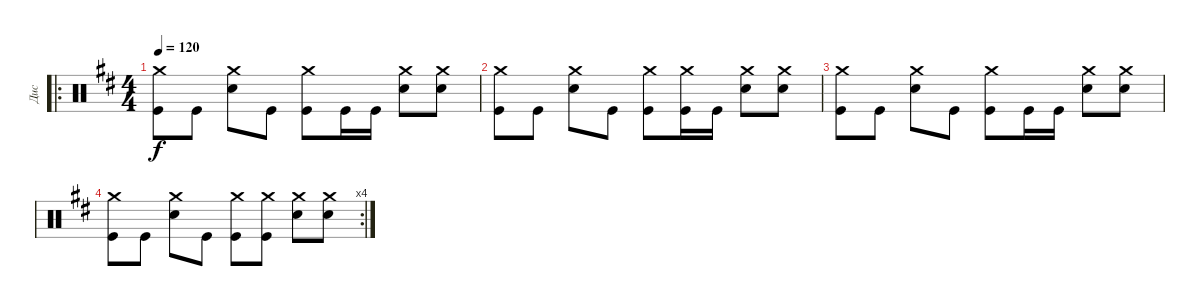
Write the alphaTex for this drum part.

\track ("Дис" "Дис") {instrument percussion}
\staff {score}
\articulation defaults
\ro
\ts (4 4)
\tempo 120
\clef neutral
\ks bminor
("Crash medium (hit)" "Kick (hit)").8{dy f} "Kick (hit)".8 ("Crash medium (hit)" "Electric Snare (hit)").8 "Kick (hit)".8 ("Crash medium (hit)" "Kick (hit)").8 "Kick (hit)".16 "Kick (hit)".16 ("Crash medium (hit)" "Electric Snare (hit)").8 ("Crash medium (hit)" "Electric Snare (hit)").8 |
("Crash medium (hit)" "Kick (hit)").8 "Kick (hit)".8 ("Crash medium (hit)" "Electric Snare (hit)").8 "Kick (hit)".8 ("Crash medium (hit)" "Kick (hit)").8 ("Crash medium (hit)" "Kick (hit)").16 "Kick (hit)".16 ("Crash medium (hit)" "Electric Snare (hit)").8 ("Crash medium (hit)" "Electric Snare (hit)").8 |
("Crash medium (hit)" "Kick (hit)").8 "Kick (hit)".8 ("Crash medium (hit)" "Electric Snare (hit)").8 "Kick (hit)".8 ("Crash medium (hit)" "Kick (hit)").8 "Kick (hit)".16 "Kick (hit)".16 ("Crash medium (hit)" "Electric Snare (hit)").8 ("Crash medium (hit)" "Electric Snare (hit)").8 |
\rc 4
("Crash medium (hit)" "Kick (hit)").8 "Kick (hit)".8 ("Crash medium (hit)" "Electric Snare (hit)").8 "Kick (hit)".8 ("Crash medium (hit)" "Kick (hit)").8 ("Crash medium (hit)" "Kick (hit)").8 ("Crash medium (hit)" "Electric Snare (hit)").8 ("Crash medium (hit)" "Electric Snare (hit)").8
